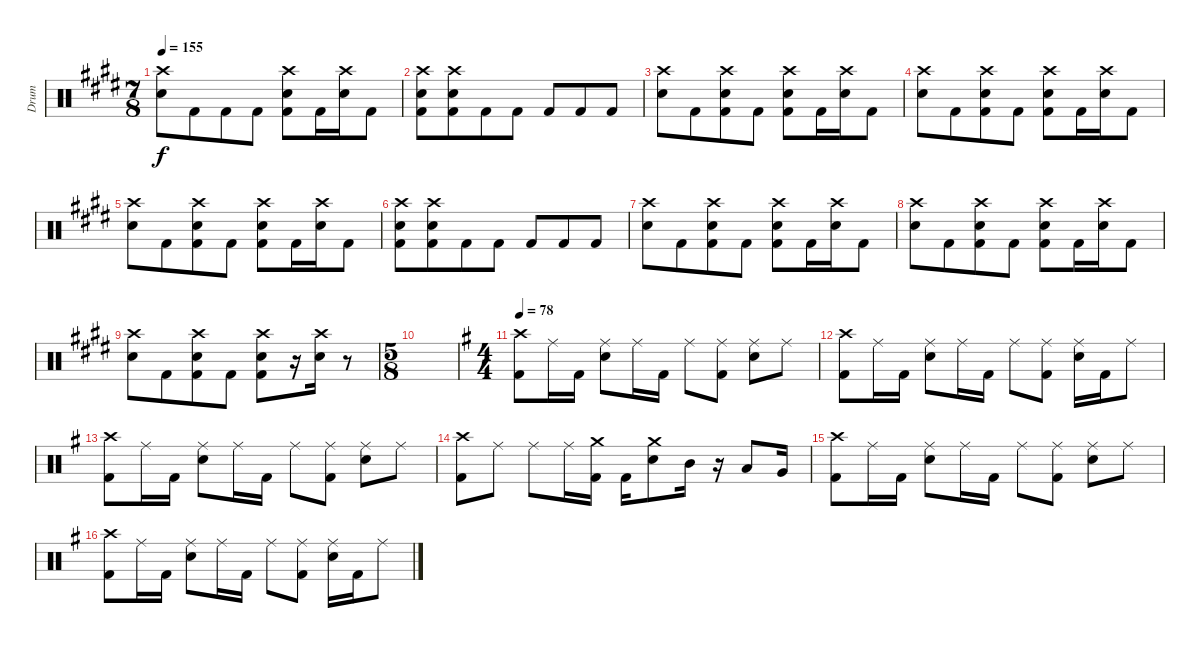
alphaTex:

\track ("Drum" "Drum") {instrument percussion}
\staff {score}
\articulation defaults
\ts (7 8)
\tempo 155
\clef neutral
\ks e
("Crash high (hit)" "Snare (hit) 2").8{dy f} "Kick (hit) 2".8 "Kick (hit) 2".8 "Kick (hit) 2".8 ("Crash high (hit)" "Snare (hit) 2" "Kick (hit) 2").8 "Kick (hit) 2".16 ("Crash high (hit)" "Snare (hit) 2").16 "Kick (hit) 2".8 |
("Kick (hit) 2" "Crash high (hit)" "Snare (hit) 2").8 ("Snare (hit) 2" "Crash high (hit)" "Kick (hit) 2").8 "Kick (hit) 2".8 "Kick (hit) 2".8 "Kick (hit) 2".8 "Kick (hit) 2".8 "Kick (hit) 2".8 |
("Crash high (hit)" "Snare (hit) 2").8 "Kick (hit) 2".8 ("Crash high (hit)" "Snare (hit) 2" "Kick (hit) 2").8 "Kick (hit) 2".8 ("Crash high (hit)" "Snare (hit) 2" "Kick (hit) 2").8 "Kick (hit) 2".16 ("Crash high (hit)" "Snare (hit) 2").16 "Kick (hit) 2".8 |
("Crash high (hit)" "Snare (hit) 2").8 "Kick (hit) 2".8 ("Crash high (hit)" "Snare (hit) 2" "Kick (hit) 2").8 "Kick (hit) 2".8 ("Crash high (hit)" "Snare (hit) 2" "Kick (hit) 2").8 "Kick (hit) 2".16 ("Crash high (hit)" "Snare (hit) 2").16 "Kick (hit) 2".8 |
("Crash high (hit)" "Snare (hit) 2").8 "Kick (hit) 2".8 ("Crash high (hit)" "Snare (hit) 2" "Kick (hit) 2").8 "Kick (hit) 2".8 ("Crash high (hit)" "Snare (hit) 2" "Kick (hit) 2").8 "Kick (hit) 2".16 ("Crash high (hit)" "Snare (hit) 2").16 "Kick (hit) 2".8 |
("Kick (hit) 2" "Crash high (hit)" "Snare (hit) 2").8 ("Snare (hit) 2" "Crash high (hit)" "Kick (hit) 2").8 "Kick (hit) 2".8 "Kick (hit) 2".8 "Kick (hit) 2".8 "Kick (hit) 2".8 "Kick (hit) 2".8 |
("Crash high (hit)" "Snare (hit) 2").8 "Kick (hit) 2".8 ("Crash high (hit)" "Snare (hit) 2" "Kick (hit) 2").8 "Kick (hit) 2".8 ("Crash high (hit)" "Snare (hit) 2" "Kick (hit) 2").8 "Kick (hit) 2".16 ("Crash high (hit)" "Snare (hit) 2").16 "Kick (hit) 2".8 |
("Crash high (hit)" "Snare (hit) 2").8 "Kick (hit) 2".8 ("Crash high (hit)" "Snare (hit) 2" "Kick (hit) 2").8 "Kick (hit) 2".8 ("Crash high (hit)" "Snare (hit) 2" "Kick (hit) 2").8 "Kick (hit) 2".16 ("Crash high (hit)" "Snare (hit) 2").16 "Kick (hit) 2".8 |
("Crash high (hit)" "Snare (hit) 2").8 "Kick (hit) 2".8 ("Crash high (hit)" "Snare (hit) 2" "Kick (hit) 2").8 "Kick (hit) 2".8 ("Crash high (hit)" "Snare (hit) 2" "Kick (hit) 2").8 r.16 ("Crash high (hit)" "Snare (hit) 2").16 r.8 |
\ts (5 8)
|
\ts (4 4)
\tempo 78
\ks g
("Crash high (hit)" "Kick (hit) 2").8 "Ride (middle)".16 "Kick (hit) 2".16 ("Ride (middle)" "Snare (hit) 2").8 "Ride (middle)".16 "Kick (hit) 2".16 "Ride (middle)".8 ("Ride (middle)" "Kick (hit) 2").8 ("Ride (middle)" "Snare (hit) 2").8 "Ride (middle)".8 |
("Crash high (hit)" "Kick (hit) 2").8 "Ride (middle)".16 "Kick (hit) 2".16 ("Ride (middle)" "Snare (hit) 2").8 "Ride (middle)".16 "Kick (hit) 2".16 "Ride (middle)".8 ("Ride (middle)" "Kick (hit) 2").8 ("Ride (middle)" "Snare (hit) 2").16 "Kick (hit) 2".16 "Ride (middle)".8 |
("Crash high (hit)" "Kick (hit) 2").8 "Ride (middle)".16 "Kick (hit) 2".16 ("Ride (middle)" "Snare (hit) 2").8 "Ride (middle)".16 "Kick (hit) 2".16 "Ride (middle)".8 ("Ride (middle)" "Kick (hit) 2").8 ("Ride (middle)" "Snare (hit) 2").8 "Ride (middle)".8 |
("Crash high (hit)" "Kick (hit) 2").8 "Ride (middle)".8 "Ride (middle)".8 "Ride (middle)".16 ("Crash medium (hit)" "Kick (hit) 2").16 "Kick (hit) 2".16 ("Crash medium (hit)" "Snare (hit) 2").8 "Mid Tom (hit)".16 r.16 "Low Tom (hit)".8 "Very Low Tom (hit)".16 |
("Crash high (hit)" "Kick (hit) 2").8 "Ride (middle)".16 "Kick (hit) 2".16 ("Ride (middle)" "Snare (hit) 2").8 "Ride (middle)".16 "Kick (hit) 2".16 "Ride (middle)".8 ("Ride (middle)" "Kick (hit) 2").8 ("Ride (middle)" "Snare (hit) 2").8 "Ride (middle)".8 |
("Crash high (hit)" "Kick (hit) 2").8 "Ride (middle)".16 "Kick (hit) 2".16 ("Ride (middle)" "Snare (hit) 2").8 "Ride (middle)".16 "Kick (hit) 2".16 "Ride (middle)".8 ("Ride (middle)" "Kick (hit) 2").8 ("Ride (middle)" "Snare (hit) 2").16 "Kick (hit) 2".16 "Ride (middle)".8
